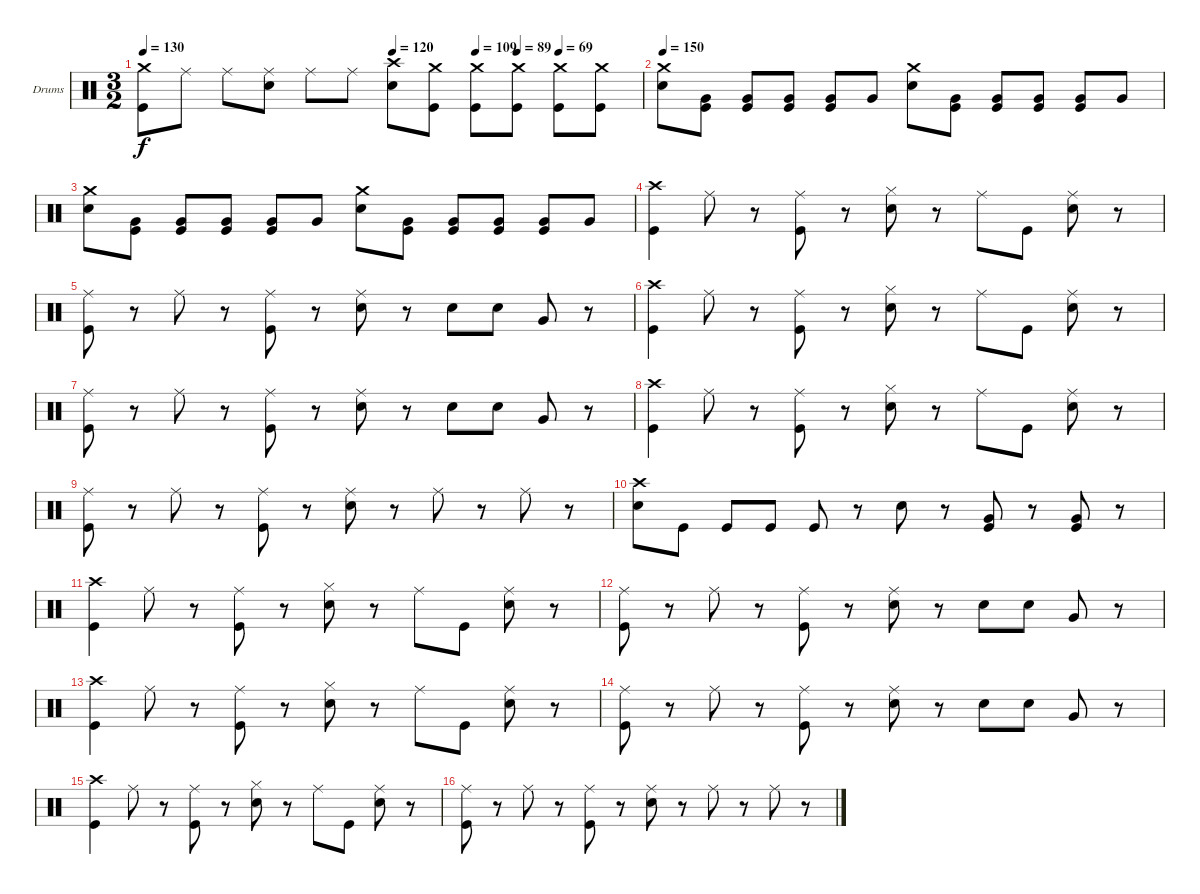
\bracketExtendMode groupsimilarinstruments
\firstSystemTrackNameOrientation horizontal
\otherSystemsTrackNameOrientation horizontal
\track ("Барабаны" "Drums") {instrument percussion}
\staff {score}
\articulation defaults
\ts (3 2)
\tempo 130
\tempo (120 0.5)
\tempo (109 0.666667)
\tempo (89 0.75)
\tempo (69 0.833333)
\clef neutral
\ks c
("Crash medium (hit)" "Kick (hit)").8{dy f} "Ride (middle)".8 "Ride (middle)".8 ("Ride (middle)" "Snare (hit) 2").8 "Ride (middle)".8 "Ride (middle)".8 ("Snare (hit) 2" "Crash high (hit)").8 ("Crash medium (hit)" "Kick (hit)").8 ("Kick (hit)" "Crash medium (hit)").8 ("Kick (hit)" "Crash medium (hit)").8 ("Crash medium (hit)" "Kick (hit)").8 ("Crash medium (hit)" "Kick (hit)").8 |
\tempo 150
("Snare (hit) 2" "Crash medium (hit)").8 ("Kick (hit)" "Very Low Tom (hit)").8 ("Kick (hit)" "Very Low Tom (hit)").8 ("Kick (hit)" "Very Low Tom (hit)").8 ("Kick (hit)" "Very Low Tom (hit)").8 "Very Low Tom (hit)".8 ("Snare (hit) 2" "Crash medium (hit)").8 ("Very Low Tom (hit)" "Kick (hit)").8 ("Kick (hit)" "Very Low Tom (hit)").8 ("Very Low Tom (hit)" "Kick (hit)").8 ("Kick (hit)" "Very Low Tom (hit)").8 "Very Low Tom (hit)".8 |
("Crash medium (hit)" "Snare (hit) 2").8 ("Very Low Tom (hit)" "Kick (hit)").8 ("Kick (hit)" "Very Low Tom (hit)").8 ("Kick (hit)" "Very Low Tom (hit)").8 ("Kick (hit)" "Very Low Tom (hit)").8 "Very Low Tom (hit)".8 ("Snare (hit) 2" "Crash medium (hit)").8 ("Kick (hit)" "Very Low Tom (hit)").8 ("Kick (hit)" "Very Low Tom (hit)").8 ("Kick (hit)" "Very Low Tom (hit)").8 ("Very Low Tom (hit)" "Kick (hit)").8 "Very Low Tom (hit)".8 |
("Kick (hit)" "Crash high (hit)").4 "Ride (middle)".8 r.8 ("Ride (middle)" "Kick (hit)").8 r.8 ("Snare (hit) 2" "Hi-Hat (closed)").8 r.8 "Ride (middle)".8 "Kick (hit)".8 ("Snare (hit) 2" "Ride (middle)").8 r.8 |
("Kick (hit)" "Ride (middle)").8 r.8 "Ride (middle)".8 r.8 ("Kick (hit)" "Ride (middle)").8 r.8 ("Snare (hit) 2" "Ride (middle)").8 r.8 "Snare (hit) 2".8 "Snare (hit) 2".8 "Very Low Tom (hit)".8 r.8 |
("Kick (hit)" "Crash high (hit)").4 "Ride (middle)".8 r.8 ("Kick (hit)" "Ride (middle)").8 r.8 ("Snare (hit) 2" "Hi-Hat (closed)").8 r.8 "Ride (middle)".8 "Kick (hit)".8 ("Ride (middle)" "Snare (hit) 2").8 r.8 |
("Kick (hit)" "Ride (middle)").8 r.8 "Ride (middle)".8 r.8 ("Ride (middle)" "Kick (hit)").8 r.8 ("Snare (hit) 2" "Ride (middle)").8 r.8 "Snare (hit) 2".8 "Snare (hit) 2".8 "Very Low Tom (hit)".8 r.8 |
("Kick (hit)" "Crash high (hit)").4 "Ride (middle)".8 r.8 ("Ride (middle)" "Kick (hit)").8 r.8 ("Hi-Hat (closed)" "Snare (hit) 2").8 r.8 "Ride (middle)".8 "Kick (hit)".8 ("Ride (middle)" "Snare (hit) 2").8 r.8 |
("Ride (middle)" "Kick (hit)").8 r.8 "Ride (middle)".8 r.8 ("Ride (middle)" "Kick (hit)").8 r.8 ("Snare (hit) 2" "Ride (middle)").8 r.8 "Ride (middle)".8 r.8 "Ride (middle)".8 r.8 |
("Snare (hit) 2" "Crash high (hit)").8 "Kick (hit)".8 "Kick (hit)".8 "Kick (hit)".8 "Kick (hit)".8 r.8 "Snare (hit) 2".8 r.8 ("Very Low Tom (hit)" "Kick (hit)").8 r.8 ("Very Low Tom (hit)" "Kick (hit)").8 r.8 |
("Crash high (hit)" "Kick (hit)").4 "Ride (middle)".8 r.8 ("Ride (middle)" "Kick (hit)").8 r.8 ("Hi-Hat (closed)" "Snare (hit) 2").8 r.8 "Ride (middle)".8 "Kick (hit)".8 ("Ride (middle)" "Snare (hit) 2").8 r.8 |
("Kick (hit)" "Ride (middle)").8 r.8 "Ride (middle)".8 r.8 ("Kick (hit)" "Ride (middle)").8 r.8 ("Snare (hit) 2" "Ride (middle)").8 r.8 "Snare (hit) 2".8 "Snare (hit) 2".8 "Very Low Tom (hit)".8 r.8 |
("Crash high (hit)" "Kick (hit)").4 "Ride (middle)".8 r.8 ("Kick (hit)" "Ride (middle)").8 r.8 ("Snare (hit) 2" "Hi-Hat (closed)").8 r.8 "Ride (middle)".8 "Kick (hit)".8 ("Ride (middle)" "Snare (hit) 2").8 r.8 |
("Kick (hit)" "Ride (middle)").8 r.8 "Ride (middle)".8 r.8 ("Kick (hit)" "Ride (middle)").8 r.8 ("Snare (hit) 2" "Ride (middle)").8 r.8 "Snare (hit) 2".8 "Snare (hit) 2".8 "Very Low Tom (hit)".8 r.8 |
("Kick (hit)" "Crash high (hit)").4 "Ride (middle)".8 r.8 ("Kick (hit)" "Ride (middle)").8 r.8 ("Hi-Hat (closed)" "Snare (hit) 2").8 r.8 "Ride (middle)".8 "Kick (hit)".8 ("Ride (middle)" "Snare (hit) 2").8 r.8 |
("Ride (middle)" "Kick (hit)").8 r.8 "Ride (middle)".8 r.8 ("Kick (hit)" "Ride (middle)").8 r.8 ("Ride (middle)" "Snare (hit) 2").8 r.8 "Ride (middle)".8 r.8 "Ride (middle)".8 r.8
